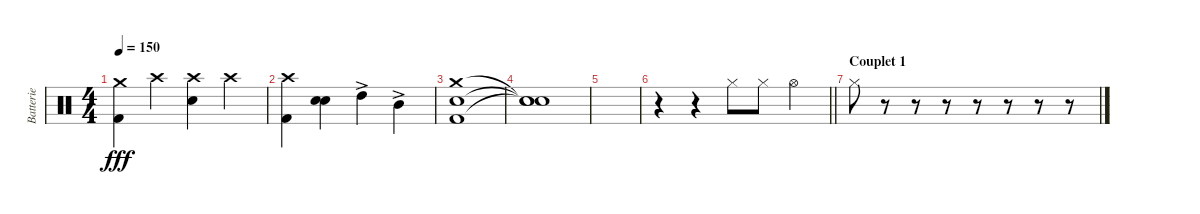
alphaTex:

\track ("Batterie" "Batterie") {instrument percussion}
\staff {score}
\articulation defaults
\ts (4 4)
\tempo 150
\clef neutral
\ks c
("Crash medium (hit)" "Kick (hit) 2").4{dy fff} "Crash high (hit)".4 ("Crash high (hit)" "Electric Snare (hit)").4 "Crash high (hit)".4 |
("Crash high (hit)" "Kick (hit) 2").4 ("Electric Snare (hit)" "Electric Snare (hit)").4{bu 120} "High Tom (hit)"{ac}.4 "Mid Tom (hit)"{ac}.4 |
("Crash medium (hit)" "Electric Snare (hit)" "Kick (hit) 2").1 |
("Snare (hit)"{t} "Snare (hit)"{t} "Snare (hit)"{t}).1 |
|
\barLineRight lightlight
r.4 r.4 "Hi-Hat (closed)".8 "Hi-Hat (closed)".8 "Hi-Hat (open)".4 |
\section ("" "Couplet 1")
"Hi-Hat (closed)".8 r.8 r.8 r.8 r.8 r.8 r.8 r.8
